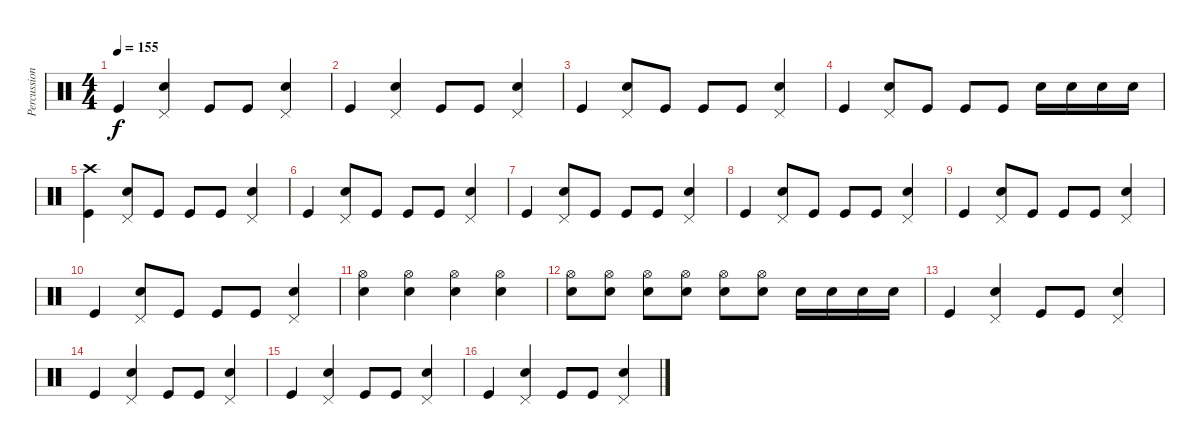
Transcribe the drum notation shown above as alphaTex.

\track ("Percussion" "Percussion") {instrument percussion}
\staff {score}
\articulation defaults
\ts (4 4)
\tempo 155
\clef neutral
\ks c "Kick (hit)".4{dy f}
("Snare (hit) 2" "Pedal Hi-Hat (hit)").4 "Kick (hit)".8 "Kick (hit)".8 ("Snare (hit) 2" "Pedal Hi-Hat (hit)").4 |
"Kick (hit)".4 ("Snare (hit) 2" "Pedal Hi-Hat (hit)").4 "Kick (hit)".8 "Kick (hit)".8 ("Snare (hit) 2" "Pedal Hi-Hat (hit)").4 |
"Kick (hit)".4 ("Snare (hit) 2" "Pedal Hi-Hat (hit)").8 "Kick (hit)".8 "Kick (hit)".8 "Kick (hit)".8 ("Snare (hit) 2" "Pedal Hi-Hat (hit)").4 |
"Kick (hit)".4 ("Snare (hit) 2" "Pedal Hi-Hat (hit)").8 "Kick (hit)".8 "Kick (hit)".8 "Kick (hit)".8 "Snare (hit) 2".16 "Snare (hit) 2".16 "Snare (hit) 2".16 "Snare (hit) 2".16 |
("Kick (hit)" "Crash high (hit)").4 ("Snare (hit) 2" "Pedal Hi-Hat (hit)").8 "Kick (hit)".8 "Kick (hit)".8 "Kick (hit)".8 ("Snare (hit) 2" "Pedal Hi-Hat (hit)").4 |
"Kick (hit)".4 ("Snare (hit) 2" "Pedal Hi-Hat (hit)").8 "Kick (hit)".8 "Kick (hit)".8 "Kick (hit)".8 ("Snare (hit) 2" "Pedal Hi-Hat (hit)").4 |
"Kick (hit)".4 ("Snare (hit) 2" "Pedal Hi-Hat (hit)").8 "Kick (hit)".8 "Kick (hit)".8 "Kick (hit)".8 ("Snare (hit) 2" "Pedal Hi-Hat (hit)").4 |
"Kick (hit)".4 ("Snare (hit) 2" "Pedal Hi-Hat (hit)").8 "Kick (hit)".8 "Kick (hit)".8 "Kick (hit)".8 ("Snare (hit) 2" "Pedal Hi-Hat (hit)").4 |
"Kick (hit)".4 ("Snare (hit) 2" "Pedal Hi-Hat (hit)").8 "Kick (hit)".8 "Kick (hit)".8 "Kick (hit)".8 ("Snare (hit) 2" "Pedal Hi-Hat (hit)").4 |
"Kick (hit)".4 ("Snare (hit) 2" "Pedal Hi-Hat (hit)").8 "Kick (hit)".8 "Kick (hit)".8 "Kick (hit)".8 ("Snare (hit) 2" "Pedal Hi-Hat (hit)").4 |
("Hi-Hat (open)" "Snare (hit) 2").4 ("Hi-Hat (open)" "Snare (hit) 2").4 ("Snare (hit) 2" "Hi-Hat (open)").4 ("Hi-Hat (open)" "Snare (hit) 2").4 |
("Hi-Hat (open)" "Snare (hit) 2").8 ("Hi-Hat (open)" "Snare (hit) 2").8 ("Hi-Hat (open)" "Snare (hit) 2").8 ("Hi-Hat (open)" "Snare (hit) 2").8 ("Hi-Hat (open)" "Snare (hit) 2").8 ("Hi-Hat (open)" "Snare (hit) 2").8 "Snare (hit) 2".16 "Snare (hit) 2".16 "Snare (hit) 2".16 "Snare (hit) 2".16 |
"Kick (hit)".4 ("Snare (hit) 2" "Pedal Hi-Hat (hit)").4 "Kick (hit)".8 "Kick (hit)".8 ("Snare (hit) 2" "Pedal Hi-Hat (hit)").4 |
"Kick (hit)".4 ("Snare (hit) 2" "Pedal Hi-Hat (hit)").4 "Kick (hit)".8 "Kick (hit)".8 ("Snare (hit) 2" "Pedal Hi-Hat (hit)").4 |
"Kick (hit)".4 ("Snare (hit) 2" "Pedal Hi-Hat (hit)").4 "Kick (hit)".8 "Kick (hit)".8 ("Snare (hit) 2" "Pedal Hi-Hat (hit)").4 |
"Kick (hit)".4 ("Snare (hit) 2" "Pedal Hi-Hat (hit)").4 "Kick (hit)".8 "Kick (hit)".8 ("Snare (hit) 2" "Pedal Hi-Hat (hit)").4
